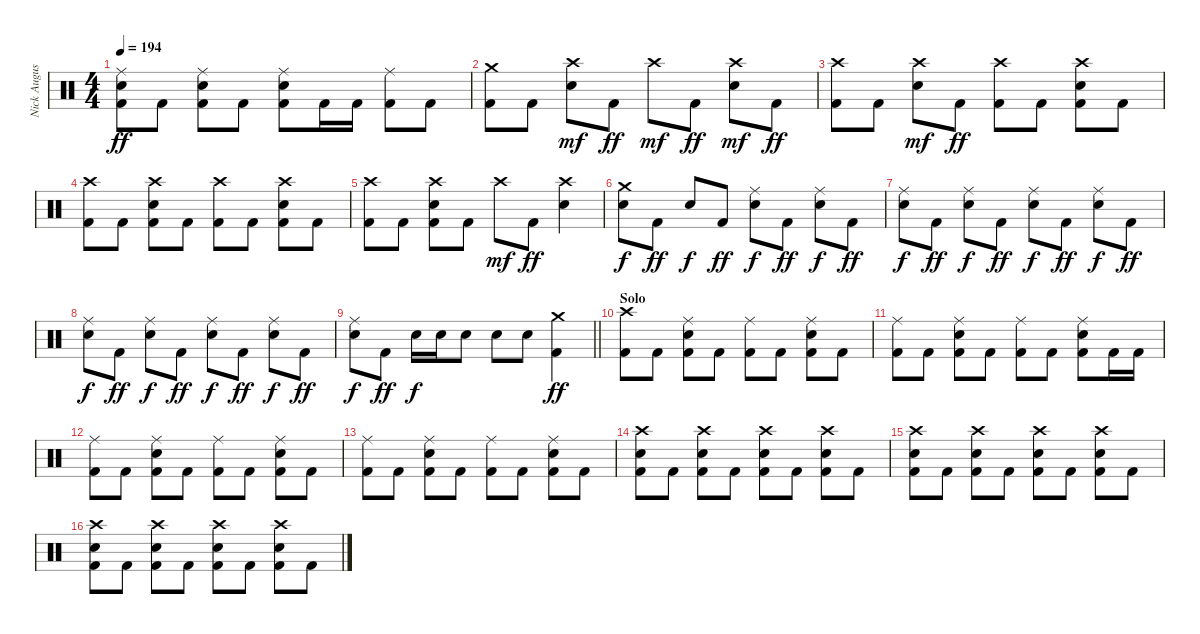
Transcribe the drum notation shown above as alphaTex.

\track ("Nick Augusto" "Nick Augus") {instrument percussion}
\staff {score}
\articulation defaults
\ts (4 4)
\tempo 194
\clef neutral
\ks c
("Ride (middle)" "Electric Snare (hit)" "Kick (hit) 2").8{dy ff} "Kick (hit) 2".8 ("Ride (middle)" "Electric Snare (hit)" "Kick (hit) 2").8 "Kick (hit) 2".8 ("Ride (middle)" "Electric Snare (hit)" "Kick (hit) 2").8 "Kick (hit) 2".16 "Kick (hit) 2".16 ("Ride (middle)" "Kick (hit) 2").8 "Kick (hit) 2".8 |
("Crash medium (hit)" "Kick (hit) 2").8 "Kick (hit) 2".8 ("Crash high (hit)" "Electric Snare (hit)").8{dy mf} "Kick (hit) 2".8{dy ff} "Crash high (hit)".8{dy mf} "Kick (hit) 2".8{dy ff} ("Crash high (hit)" "Electric Snare (hit)").8{dy mf} "Kick (hit) 2".8{dy ff} |
("Crash high (hit)" "Kick (hit) 2").8 "Kick (hit) 2".8 ("Crash high (hit)" "Electric Snare (hit)").8{dy mf} "Kick (hit) 2".8{dy ff} ("Crash high (hit)" "Kick (hit) 2").8 "Kick (hit) 2".8 ("Crash high (hit)" "Electric Snare (hit)" "Kick (hit) 2").8 "Kick (hit) 2".8 |
("Crash high (hit)" "Kick (hit) 2").8 "Kick (hit) 2".8 ("Crash high (hit)" "Electric Snare (hit)" "Kick (hit) 2").8 "Kick (hit) 2".8 ("Crash high (hit)" "Kick (hit) 2").8 "Kick (hit) 2".8 ("Crash high (hit)" "Electric Snare (hit)" "Kick (hit) 2").8 "Kick (hit) 2".8 |
("Crash high (hit)" "Kick (hit) 2").8 "Kick (hit) 2".8 ("Crash high (hit)" "Electric Snare (hit)" "Kick (hit) 2").8 "Kick (hit) 2".8 "Crash high (hit)".8{dy mf} "Kick (hit) 2".8{dy ff} ("Crash high (hit)" "Electric Snare (hit)").4 |
("Crash medium (hit)" "Electric Snare (hit)").8{dy f} "Kick (hit) 2".8{dy ff} "Electric Snare (hit)".8{dy f} "Kick (hit) 2".8{dy ff} ("Ride (middle)" "Electric Snare (hit)").8{dy f} "Kick (hit) 2".8{dy ff} ("Ride (middle)" "Electric Snare (hit)").8{dy f} "Kick (hit) 2".8{dy ff} |
("Ride (middle)" "Electric Snare (hit)").8{dy f} "Kick (hit) 2".8{dy ff} ("Ride (middle)" "Electric Snare (hit)").8{dy f} "Kick (hit) 2".8{dy ff} ("Ride (middle)" "Electric Snare (hit)").8{dy f} "Kick (hit) 2".8{dy ff} ("Ride (middle)" "Electric Snare (hit)").8{dy f} "Kick (hit) 2".8{dy ff} |
("Ride (middle)" "Electric Snare (hit)").8{dy f} "Kick (hit) 2".8{dy ff} ("Ride (middle)" "Electric Snare (hit)").8{dy f} "Kick (hit) 2".8{dy ff} ("Ride (middle)" "Electric Snare (hit)").8{dy f} "Kick (hit) 2".8{dy ff} ("Ride (middle)" "Electric Snare (hit)").8{dy f} "Kick (hit) 2".8{dy ff} |
\barLineRight lightlight
("Ride (middle)" "Electric Snare (hit)").8{dy f} "Kick (hit) 2".8{dy ff} "Electric Snare (hit)".16{dy f} "Electric Snare (hit)".16 "Electric Snare (hit)".8 "Electric Snare (hit)".8 "Electric Snare (hit)".8 ("Crash medium (hit)" "Kick (hit) 2").4{dy ff} |
\section ("" "Solo")
("Crash high (hit)" "Kick (hit) 2").8 "Kick (hit) 2".8 ("Ride (middle)" "Electric Snare (hit)" "Kick (hit) 2").8 "Kick (hit) 2".8 ("Ride (middle)" "Kick (hit) 2").8 "Kick (hit) 2".8 ("Ride (middle)" "Electric Snare (hit)" "Kick (hit) 2").8 "Kick (hit) 2".8 |
("Ride (middle)" "Kick (hit) 2").8 "Kick (hit) 2".8 ("Ride (middle)" "Electric Snare (hit)" "Kick (hit) 2").8 "Kick (hit) 2".8 ("Ride (middle)" "Kick (hit) 2").8 "Kick (hit) 2".8 ("Ride (middle)" "Electric Snare (hit)" "Kick (hit) 2").8 "Kick (hit) 2".16 "Kick (hit) 2".16 |
("Ride (middle)" "Kick (hit) 2").8 "Kick (hit) 2".8 ("Ride (middle)" "Electric Snare (hit)" "Kick (hit) 2").8 "Kick (hit) 2".8 ("Ride (middle)" "Kick (hit) 2").8 "Kick (hit) 2".8 ("Ride (middle)" "Electric Snare (hit)" "Kick (hit) 2").8 "Kick (hit) 2".8 |
("Ride (middle)" "Kick (hit) 2").8 "Kick (hit) 2".8 ("Ride (middle)" "Electric Snare (hit)" "Kick (hit) 2").8 "Kick (hit) 2".8 ("Ride (middle)" "Kick (hit) 2").8 "Kick (hit) 2".8 ("Ride (middle)" "Electric Snare (hit)" "Kick (hit) 2").8 "Kick (hit) 2".8 |
("Crash high (hit)" "Electric Snare (hit)" "Kick (hit) 2").8 "Kick (hit) 2".8 ("Crash high (hit)" "Electric Snare (hit)" "Kick (hit) 2").8 "Kick (hit) 2".8 ("Crash high (hit)" "Electric Snare (hit)" "Kick (hit) 2").8 "Kick (hit) 2".8 ("Crash high (hit)" "Electric Snare (hit)" "Kick (hit) 2").8 "Kick (hit) 2".8 |
("Crash high (hit)" "Electric Snare (hit)" "Kick (hit) 2").8 "Kick (hit) 2".8 ("Crash high (hit)" "Electric Snare (hit)" "Kick (hit) 2").8 "Kick (hit) 2".8 ("Crash high (hit)" "Electric Snare (hit)" "Kick (hit) 2").8 "Kick (hit) 2".8 ("Crash high (hit)" "Electric Snare (hit)" "Kick (hit) 2").8 "Kick (hit) 2".8 |
("Crash high (hit)" "Electric Snare (hit)" "Kick (hit) 2").8 "Kick (hit) 2".8 ("Crash high (hit)" "Electric Snare (hit)" "Kick (hit) 2").8 "Kick (hit) 2".8 ("Crash high (hit)" "Electric Snare (hit)" "Kick (hit) 2").8 "Kick (hit) 2".8 ("Crash high (hit)" "Electric Snare (hit)" "Kick (hit) 2").8 "Kick (hit) 2".8
